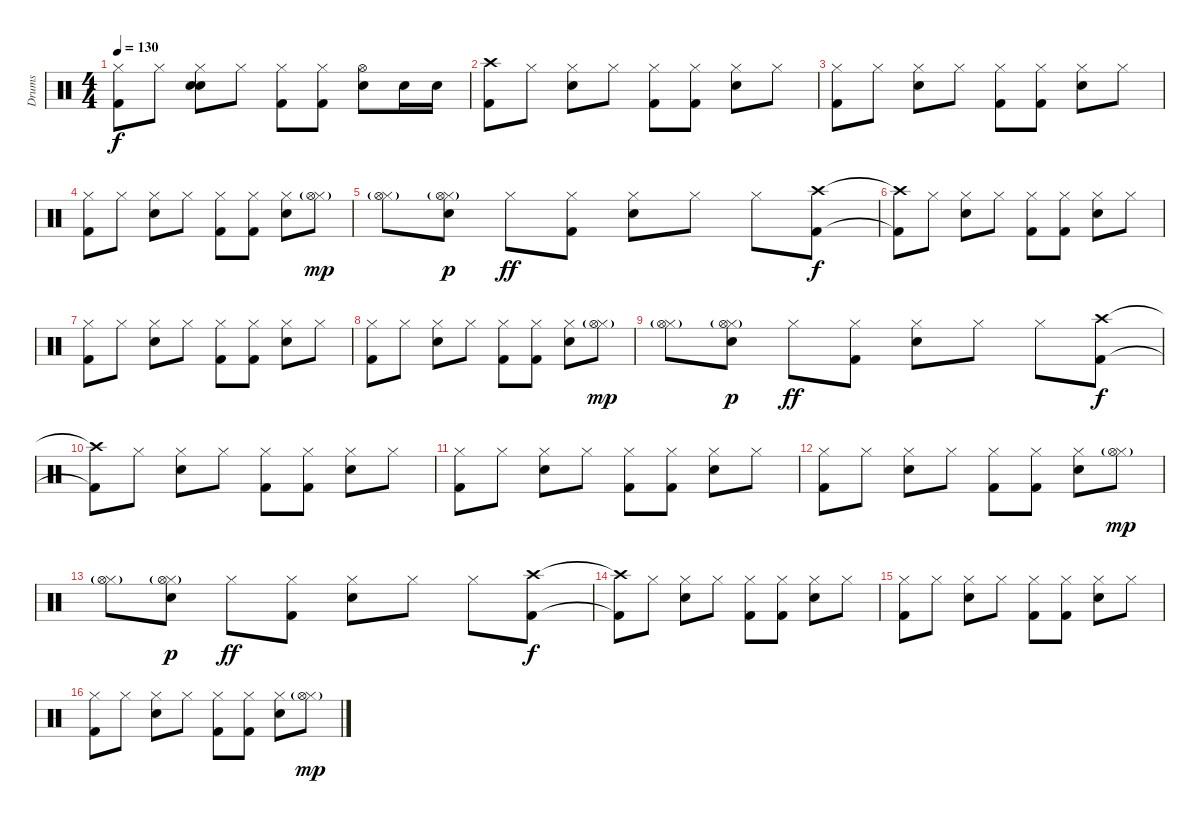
\track ("Drums" "Drums") {instrument percussion}
\staff {score}
\articulation defaults
\ts (4 4)
\tempo 130
\clef neutral
\ks c
("Hi-Hat (closed)" "Kick (hit) 2").8{dy f} "Hi-Hat (closed)".8 ("Hand Clap (hit)" "Hi-Hat (closed)" "Electric Snare (hit)").8 "Hi-Hat (closed)".8 ("Hi-Hat (closed)" "Kick (hit) 2").8 ("Hi-Hat (closed)" "Kick (hit) 2").8 ("Hi-Hat (open)" "Electric Snare (hit)").8 "Electric Snare (hit)".16 "Electric Snare (hit)".16 |
("Crash high (hit)" "Kick (hit) 2").8 "Hi-Hat (closed)".8 ("Hi-Hat (closed)" "Electric Snare (hit)").8 "Hi-Hat (closed)".8 ("Hi-Hat (closed)" "Kick (hit) 2").8 ("Hi-Hat (closed)" "Kick (hit) 2").8 ("Hi-Hat (closed)" "Electric Snare (hit)").8 "Hi-Hat (closed)".8 |
("Hi-Hat (closed)" "Kick (hit) 2").8 "Hi-Hat (closed)".8 ("Hi-Hat (closed)" "Electric Snare (hit)").8 "Hi-Hat (closed)".8 ("Hi-Hat (closed)" "Kick (hit) 2").8 ("Hi-Hat (closed)" "Kick (hit) 2").8 ("Hi-Hat (closed)" "Electric Snare (hit)").8 "Hi-Hat (closed)".8 |
("Hi-Hat (closed)" "Kick (hit) 2").8 "Hi-Hat (closed)".8 ("Hi-Hat (closed)" "Electric Snare (hit)").8 "Hi-Hat (closed)".8 ("Hi-Hat (closed)" "Kick (hit) 2").8 ("Hi-Hat (closed)" "Kick (hit) 2").8 ("Hi-Hat (closed)" "Electric Snare (hit)").8 ("Hi-Hat (closed)" "Hi-Hat (open)"{g}).8{dy mp} |
("Hi-Hat (closed)" "Hi-Hat (open)"{g}).8 ("Hi-Hat (closed)" "Hi-Hat (open)"{g} "Electric Snare (hit)").8{dy p} "Hi-Hat (closed)".8{dy ff} ("Hi-Hat (closed)" "Kick (hit) 2").8 ("Hi-Hat (closed)" "Electric Snare (hit)").8 "Hi-Hat (closed)".8 "Hi-Hat (closed)".8 ("Crash high (hit)" "Kick (hit) 2").8{dy f} |
("Crash high (hit)"{t} "Kick (hit) 2"{t}).8 "Hi-Hat (closed)".8 ("Hi-Hat (closed)" "Electric Snare (hit)").8 "Hi-Hat (closed)".8 ("Hi-Hat (closed)" "Kick (hit) 2").8 ("Hi-Hat (closed)" "Kick (hit) 2").8 ("Hi-Hat (closed)" "Electric Snare (hit)").8 "Hi-Hat (closed)".8 |
("Hi-Hat (closed)" "Kick (hit) 2").8 "Hi-Hat (closed)".8 ("Hi-Hat (closed)" "Electric Snare (hit)").8 "Hi-Hat (closed)".8 ("Hi-Hat (closed)" "Kick (hit) 2").8 ("Hi-Hat (closed)" "Kick (hit) 2").8 ("Hi-Hat (closed)" "Electric Snare (hit)").8 "Hi-Hat (closed)".8 |
("Hi-Hat (closed)" "Kick (hit) 2").8 "Hi-Hat (closed)".8 ("Hi-Hat (closed)" "Electric Snare (hit)").8 "Hi-Hat (closed)".8 ("Hi-Hat (closed)" "Kick (hit) 2").8 ("Hi-Hat (closed)" "Kick (hit) 2").8 ("Hi-Hat (closed)" "Electric Snare (hit)").8 ("Hi-Hat (closed)" "Hi-Hat (open)"{g}).8{dy mp} |
("Hi-Hat (closed)" "Hi-Hat (open)"{g}).8 ("Hi-Hat (closed)" "Hi-Hat (open)"{g} "Electric Snare (hit)").8{dy p} "Hi-Hat (closed)".8{dy ff} ("Hi-Hat (closed)" "Kick (hit) 2").8 ("Hi-Hat (closed)" "Electric Snare (hit)").8 "Hi-Hat (closed)".8 "Hi-Hat (closed)".8 ("Crash high (hit)" "Kick (hit) 2").8{dy f} |
("Crash high (hit)"{t} "Kick (hit) 2"{t}).8 "Hi-Hat (closed)".8 ("Hi-Hat (closed)" "Electric Snare (hit)").8 "Hi-Hat (closed)".8 ("Hi-Hat (closed)" "Kick (hit) 2").8 ("Hi-Hat (closed)" "Kick (hit) 2").8 ("Hi-Hat (closed)" "Electric Snare (hit)").8 "Hi-Hat (closed)".8 |
("Hi-Hat (closed)" "Kick (hit) 2").8 "Hi-Hat (closed)".8 ("Hi-Hat (closed)" "Electric Snare (hit)").8 "Hi-Hat (closed)".8 ("Hi-Hat (closed)" "Kick (hit) 2").8 ("Hi-Hat (closed)" "Kick (hit) 2").8 ("Hi-Hat (closed)" "Electric Snare (hit)").8 "Hi-Hat (closed)".8 |
("Hi-Hat (closed)" "Kick (hit) 2").8 "Hi-Hat (closed)".8 ("Hi-Hat (closed)" "Electric Snare (hit)").8 "Hi-Hat (closed)".8 ("Hi-Hat (closed)" "Kick (hit) 2").8 ("Hi-Hat (closed)" "Kick (hit) 2").8 ("Hi-Hat (closed)" "Electric Snare (hit)").8 ("Hi-Hat (closed)" "Hi-Hat (open)"{g}).8{dy mp} |
("Hi-Hat (closed)" "Hi-Hat (open)"{g}).8 ("Hi-Hat (closed)" "Hi-Hat (open)"{g} "Electric Snare (hit)").8{dy p} "Hi-Hat (closed)".8{dy ff} ("Hi-Hat (closed)" "Kick (hit) 2").8 ("Hi-Hat (closed)" "Electric Snare (hit)").8 "Hi-Hat (closed)".8 "Hi-Hat (closed)".8 ("Crash high (hit)" "Kick (hit) 2").8{dy f} |
("Crash high (hit)"{t} "Kick (hit) 2"{t}).8 "Hi-Hat (closed)".8 ("Hi-Hat (closed)" "Electric Snare (hit)").8 "Hi-Hat (closed)".8 ("Hi-Hat (closed)" "Kick (hit) 2").8 ("Hi-Hat (closed)" "Kick (hit) 2").8 ("Hi-Hat (closed)" "Electric Snare (hit)").8 "Hi-Hat (closed)".8 |
("Hi-Hat (closed)" "Kick (hit) 2").8 "Hi-Hat (closed)".8 ("Hi-Hat (closed)" "Electric Snare (hit)").8 "Hi-Hat (closed)".8 ("Hi-Hat (closed)" "Kick (hit) 2").8 ("Hi-Hat (closed)" "Kick (hit) 2").8 ("Hi-Hat (closed)" "Electric Snare (hit)").8 "Hi-Hat (closed)".8 |
("Hi-Hat (closed)" "Kick (hit) 2").8 "Hi-Hat (closed)".8 ("Hi-Hat (closed)" "Electric Snare (hit)").8 "Hi-Hat (closed)".8 ("Hi-Hat (closed)" "Kick (hit) 2").8 ("Hi-Hat (closed)" "Kick (hit) 2").8 ("Hi-Hat (closed)" "Electric Snare (hit)").8 ("Hi-Hat (closed)" "Hi-Hat (open)"{g}).8{dy mp}
